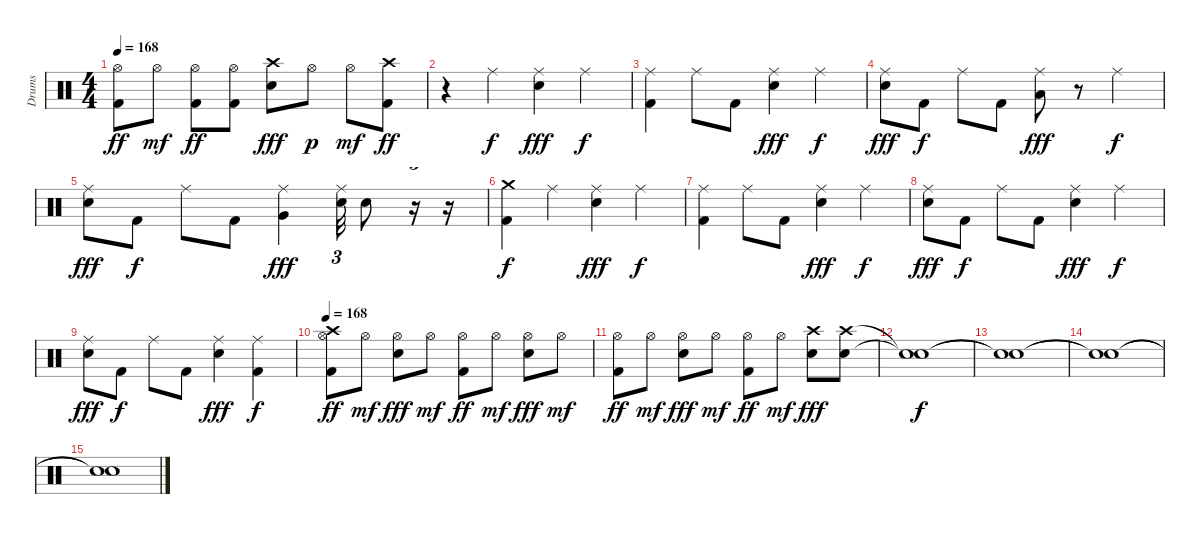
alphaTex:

\track ("Drums" "Drums") {instrument percussion}
\staff {score}
\articulation defaults
\ts (4 4)
\tempo 168
\clef neutral
\ks c
("Hi-Hat (open)" "Kick (hit) 2").8{dy ff} "Hi-Hat (open)".8{dy mf} ("Hi-Hat (open)" "Kick (hit) 2").8{dy ff} ("Hi-Hat (open)" "Kick (hit) 2").8 ("Snare (hit) 2" "Crash high (hit)").8{dy fff} "Hi-Hat (open)".8{dy p} "Hi-Hat (open)".8{dy mf} ("Kick (hit) 2" "Crash high (hit)").8{dy ff} |
r.4 "Ride (middle)".4{dy f} ("Snare (hit) 2" "Ride (middle)").4{dy fff} "Ride (middle)".4{dy f} |
("Kick (hit) 2" "Ride (middle)").4 "Ride (middle)".8 "Kick (hit) 2".8 ("Snare (hit) 2" "Ride (middle)").4{dy fff} "Ride (middle)".4{dy f} |
("Snare (hit) 2" "Ride (middle)").8{dy fff} "Kick (hit) 2".8{dy f} "Ride (middle)".8 "Kick (hit) 2".8 ("Low Tom (hit)" "Ride (middle)").8{dy fff} r.8 "Ride (middle)".4{dy f} |
("Snare (hit) 2" "Ride (middle)").8{dy fff} "Kick (hit) 2".8{dy f} "Ride (middle)".8 "Kick (hit) 2".8 ("Very Low Tom (hit)" "Ride (middle)").4{dy fff} ("Snare (hit) 2" "Ride (middle)").32{tu (3 2)} "Snare (hit) 2".8 r.16{tu (3 2)} r.16 |
("Kick (hit) 2" "Crash medium (hit)").4{dy f} "Ride (middle)".4 ("Snare (hit) 2" "Ride (middle)").4{dy fff} "Ride (middle)".4{dy f} |
("Kick (hit) 2" "Ride (middle)").4 "Ride (middle)".8 "Kick (hit) 2".8 ("Snare (hit) 2" "Ride (middle)").4{dy fff} "Ride (middle)".4{dy f} |
("Snare (hit) 2" "Ride (middle)").8{dy fff} "Kick (hit) 2".8{dy f} "Ride (middle)".8 "Kick (hit) 2".8 ("Snare (hit) 2" "Ride (middle)").4{dy fff} "Ride (middle)".4{dy f} |
("Snare (hit) 2" "Ride (middle)").8{dy fff} "Kick (hit) 2".8{dy f} "Ride (middle)".8 "Kick (hit) 2".8 ("Snare (hit) 2" "Ride (middle)").4{dy fff} ("Kick (hit) 2" "Ride (middle)").4{dy f} |
\tempo 168
("Hi-Hat (open)" "Kick (hit) 2" "Crash high (hit)").8{dy ff} "Hi-Hat (open)".8{dy mf} ("Hi-Hat (open)" "Snare (hit) 2").8{dy fff} "Hi-Hat (open)".8{dy mf} ("Hi-Hat (open)" "Kick (hit) 2").8{dy ff} "Hi-Hat (open)".8{dy mf} ("Hi-Hat (open)" "Snare (hit) 2").8{dy fff} "Hi-Hat (open)".8{dy mf} |
("Hi-Hat (open)" "Kick (hit) 2").8{dy ff} "Hi-Hat (open)".8{dy mf} ("Hi-Hat (open)" "Snare (hit) 2").8{dy fff} "Hi-Hat (open)".8{dy mf} ("Hi-Hat (open)" "Kick (hit) 2").8{dy ff} "Hi-Hat (open)".8{dy mf} ("Snare (hit) 2" "Crash high (hit)").8{dy fff} ("Snare (hit) 2" "Crash high (hit)").8 |
("Snare (hit)"{t} "Snare (hit)"{t}).1{dy f} |
("Snare (hit)"{t} "Snare (hit)"{t}).1 |
("Snare (hit)"{t} "Snare (hit)"{t}).1 |
("Snare (hit)"{t} "Snare (hit)"{t}).1
